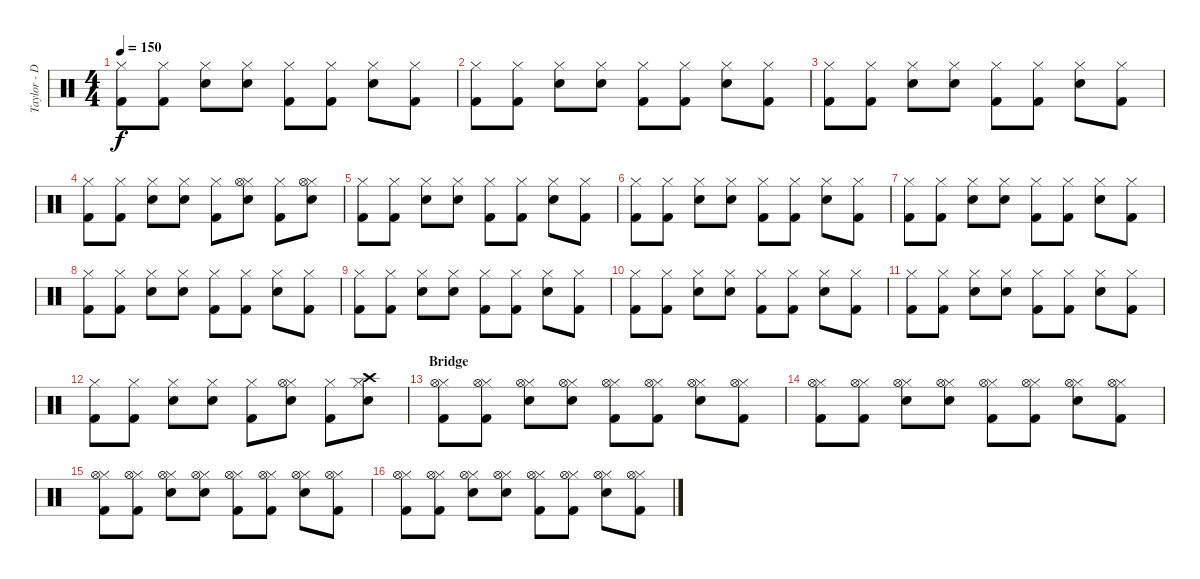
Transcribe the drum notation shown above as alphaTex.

\track ("Taylor - Drums" "Taylor - D") {instrument percussion}
\staff {score}
\articulation defaults
\ts (4 4)
\tempo 150
\clef neutral
\ks c
("Kick (hit) 2" "Hi-Hat (closed)").8{dy f} ("Kick (hit) 2" "Hi-Hat (closed)").8 ("Snare (hit) 2" "Hi-Hat (closed)").8 ("Snare (hit) 2" "Hi-Hat (closed)").8 ("Kick (hit) 2" "Hi-Hat (closed)").8 ("Kick (hit) 2" "Hi-Hat (closed)").8 ("Snare (hit) 2" "Hi-Hat (closed)").8 ("Kick (hit) 2" "Hi-Hat (closed)").8 |
("Kick (hit) 2" "Hi-Hat (closed)").8 ("Kick (hit) 2" "Hi-Hat (closed)").8 ("Snare (hit) 2" "Hi-Hat (closed)").8 ("Snare (hit) 2" "Hi-Hat (closed)").8 ("Kick (hit) 2" "Hi-Hat (closed)").8 ("Kick (hit) 2" "Hi-Hat (closed)").8 ("Snare (hit) 2" "Hi-Hat (closed)").8 ("Kick (hit) 2" "Hi-Hat (closed)").8 |
("Kick (hit) 2" "Hi-Hat (closed)").8 ("Kick (hit) 2" "Hi-Hat (closed)").8 ("Snare (hit) 2" "Hi-Hat (closed)").8 ("Snare (hit) 2" "Hi-Hat (closed)").8 ("Kick (hit) 2" "Hi-Hat (closed)").8 ("Kick (hit) 2" "Hi-Hat (closed)").8 ("Snare (hit) 2" "Hi-Hat (closed)").8 ("Kick (hit) 2" "Hi-Hat (closed)").8 |
("Kick (hit) 2" "Hi-Hat (closed)").8 ("Kick (hit) 2" "Hi-Hat (closed)").8 ("Snare (hit) 2" "Hi-Hat (closed)").8 ("Snare (hit) 2" "Hi-Hat (closed)").8 ("Kick (hit) 2" "Hi-Hat (closed)").8 ("Snare (hit) 2" "Hi-Hat (closed)" "Hi-Hat (open)").8 ("Kick (hit) 2" "Hi-Hat (closed)").8 ("Snare (hit) 2" "Hi-Hat (closed)" "Hi-Hat (open)").8 |
("Kick (hit) 2" "Hi-Hat (closed)").8 ("Kick (hit) 2" "Hi-Hat (closed)").8 ("Snare (hit) 2" "Hi-Hat (closed)").8 ("Snare (hit) 2" "Hi-Hat (closed)").8 ("Kick (hit) 2" "Hi-Hat (closed)").8 ("Kick (hit) 2" "Hi-Hat (closed)").8 ("Snare (hit) 2" "Hi-Hat (closed)").8 ("Kick (hit) 2" "Hi-Hat (closed)").8 |
("Kick (hit) 2" "Hi-Hat (closed)").8 ("Kick (hit) 2" "Hi-Hat (closed)").8 ("Snare (hit) 2" "Hi-Hat (closed)").8 ("Snare (hit) 2" "Hi-Hat (closed)").8 ("Kick (hit) 2" "Hi-Hat (closed)").8 ("Kick (hit) 2" "Hi-Hat (closed)").8 ("Snare (hit) 2" "Hi-Hat (closed)").8 ("Kick (hit) 2" "Hi-Hat (closed)").8 |
("Kick (hit) 2" "Hi-Hat (closed)").8 ("Kick (hit) 2" "Hi-Hat (closed)").8 ("Snare (hit) 2" "Hi-Hat (closed)").8 ("Snare (hit) 2" "Hi-Hat (closed)").8 ("Kick (hit) 2" "Hi-Hat (closed)").8 ("Kick (hit) 2" "Hi-Hat (closed)").8 ("Snare (hit) 2" "Hi-Hat (closed)").8 ("Kick (hit) 2" "Hi-Hat (closed)").8 |
("Kick (hit) 2" "Hi-Hat (closed)").8 ("Kick (hit) 2" "Hi-Hat (closed)").8 ("Snare (hit) 2" "Hi-Hat (closed)").8 ("Snare (hit) 2" "Hi-Hat (closed)").8 ("Kick (hit) 2" "Hi-Hat (closed)").8 ("Kick (hit) 2" "Hi-Hat (closed)").8 ("Snare (hit) 2" "Hi-Hat (closed)").8 ("Kick (hit) 2" "Hi-Hat (closed)").8 |
("Kick (hit) 2" "Hi-Hat (closed)").8 ("Kick (hit) 2" "Hi-Hat (closed)").8 ("Snare (hit) 2" "Hi-Hat (closed)").8 ("Snare (hit) 2" "Hi-Hat (closed)").8 ("Kick (hit) 2" "Hi-Hat (closed)").8 ("Kick (hit) 2" "Hi-Hat (closed)").8 ("Snare (hit) 2" "Hi-Hat (closed)").8 ("Kick (hit) 2" "Hi-Hat (closed)").8 |
("Kick (hit) 2" "Hi-Hat (closed)").8 ("Kick (hit) 2" "Hi-Hat (closed)").8 ("Snare (hit) 2" "Hi-Hat (closed)").8 ("Snare (hit) 2" "Hi-Hat (closed)").8 ("Kick (hit) 2" "Hi-Hat (closed)").8 ("Kick (hit) 2" "Hi-Hat (closed)").8 ("Snare (hit) 2" "Hi-Hat (closed)").8 ("Kick (hit) 2" "Hi-Hat (closed)").8 |
("Kick (hit) 2" "Hi-Hat (closed)").8 ("Kick (hit) 2" "Hi-Hat (closed)").8 ("Snare (hit) 2" "Hi-Hat (closed)").8 ("Snare (hit) 2" "Hi-Hat (closed)").8 ("Kick (hit) 2" "Hi-Hat (closed)").8 ("Kick (hit) 2" "Hi-Hat (closed)").8 ("Snare (hit) 2" "Hi-Hat (closed)").8 ("Kick (hit) 2" "Hi-Hat (closed)").8 |
("Kick (hit) 2" "Hi-Hat (closed)").8 ("Kick (hit) 2" "Hi-Hat (closed)").8 ("Snare (hit) 2" "Hi-Hat (closed)").8 ("Snare (hit) 2" "Hi-Hat (closed)").8 ("Kick (hit) 2" "Hi-Hat (closed)").8 ("Snare (hit) 2" "Hi-Hat (closed)" "Hi-Hat (open)").8 ("Kick (hit) 2" "Hi-Hat (closed)").8 ("Snare (hit) 2" "Hi-Hat (closed)" "Crash high (hit)").8 |
\section ("" "Bridge")
("Kick (hit) 2" "Hi-Hat (closed)" "Hi-Hat (open)").8 ("Kick (hit) 2" "Hi-Hat (closed)" "Hi-Hat (open)").8 ("Snare (hit) 2" "Hi-Hat (closed)" "Hi-Hat (open)").8 ("Snare (hit) 2" "Hi-Hat (closed)" "Hi-Hat (open)").8 ("Kick (hit) 2" "Hi-Hat (closed)" "Hi-Hat (open)").8 ("Kick (hit) 2" "Hi-Hat (closed)" "Hi-Hat (open)").8 ("Snare (hit) 2" "Hi-Hat (closed)" "Hi-Hat (open)").8 ("Kick (hit) 2" "Hi-Hat (closed)" "Hi-Hat (open)").8 |
("Kick (hit) 2" "Hi-Hat (closed)" "Hi-Hat (open)").8 ("Kick (hit) 2" "Hi-Hat (closed)" "Hi-Hat (open)").8 ("Snare (hit) 2" "Hi-Hat (closed)" "Hi-Hat (open)").8 ("Snare (hit) 2" "Hi-Hat (closed)" "Hi-Hat (open)").8 ("Kick (hit) 2" "Hi-Hat (closed)" "Hi-Hat (open)").8 ("Kick (hit) 2" "Hi-Hat (closed)" "Hi-Hat (open)").8 ("Snare (hit) 2" "Hi-Hat (closed)" "Hi-Hat (open)").8 ("Kick (hit) 2" "Hi-Hat (closed)" "Hi-Hat (open)").8 |
("Kick (hit) 2" "Hi-Hat (closed)" "Hi-Hat (open)").8 ("Kick (hit) 2" "Hi-Hat (closed)" "Hi-Hat (open)").8 ("Snare (hit) 2" "Hi-Hat (closed)" "Hi-Hat (open)").8 ("Snare (hit) 2" "Hi-Hat (closed)" "Hi-Hat (open)").8 ("Kick (hit) 2" "Hi-Hat (closed)" "Hi-Hat (open)").8 ("Kick (hit) 2" "Hi-Hat (closed)" "Hi-Hat (open)").8 ("Snare (hit) 2" "Hi-Hat (closed)" "Hi-Hat (open)").8 ("Kick (hit) 2" "Hi-Hat (closed)" "Hi-Hat (open)").8 |
("Kick (hit) 2" "Hi-Hat (closed)" "Hi-Hat (open)").8 ("Kick (hit) 2" "Hi-Hat (closed)" "Hi-Hat (open)").8 ("Snare (hit) 2" "Hi-Hat (closed)" "Hi-Hat (open)").8 ("Snare (hit) 2" "Hi-Hat (closed)" "Hi-Hat (open)").8 ("Kick (hit) 2" "Hi-Hat (closed)" "Hi-Hat (open)").8 ("Kick (hit) 2" "Hi-Hat (closed)" "Hi-Hat (open)").8 ("Snare (hit) 2" "Hi-Hat (closed)" "Hi-Hat (open)").8 ("Kick (hit) 2" "Hi-Hat (closed)" "Hi-Hat (open)").8
